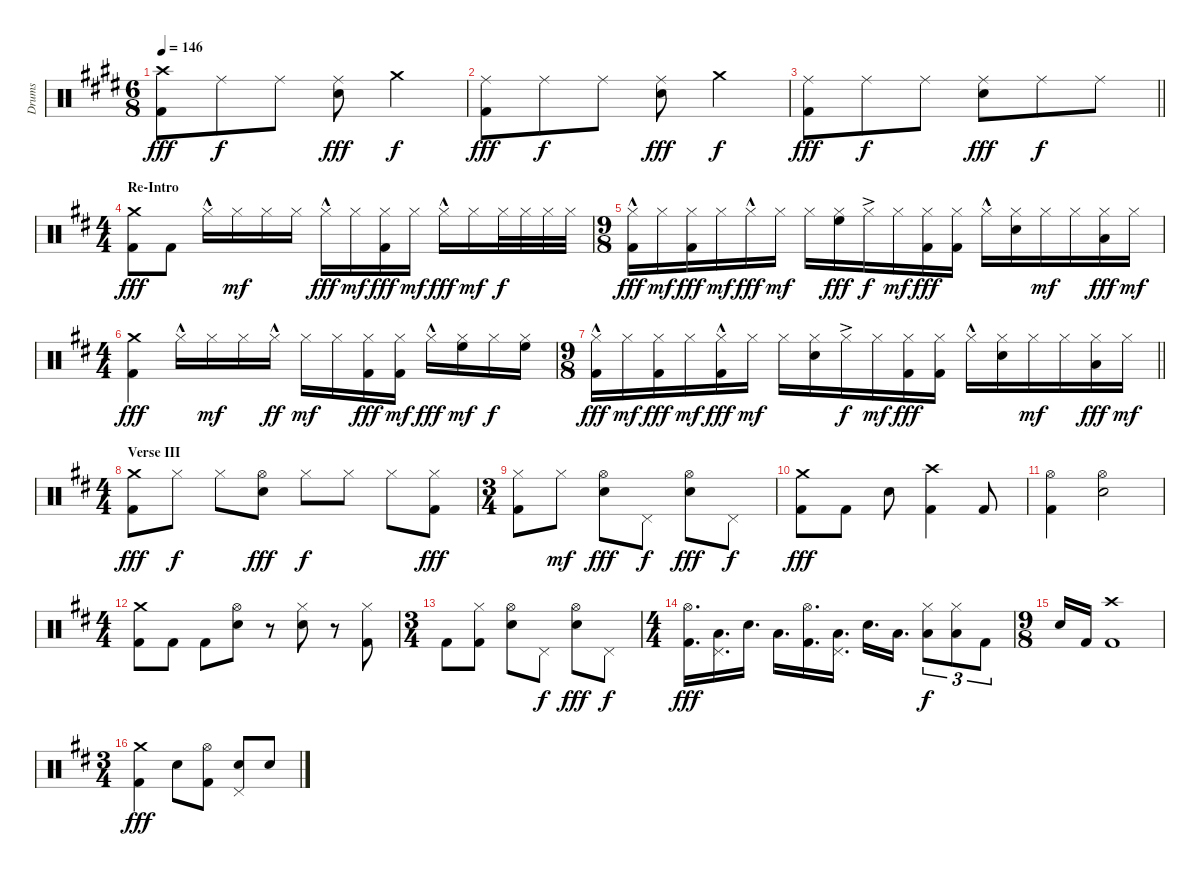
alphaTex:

\track ("Drums" "Drums") {instrument percussion}
\staff {score}
\articulation defaults
\ts (6 8)
\tempo 146
\clef neutral
\ks e
("Crash high (hit)" "Kick (hit) 2").8{dy fff} "Ride (middle)".8{dy f} "Ride (middle)".8 ("Ride (middle)" "Snare (hit) 2").8{dy fff} "Crash medium (hit)".4{dy f} |
("Ride (middle)" "Kick (hit) 2").8{dy fff} "Ride (middle)".8{dy f} "Ride (middle)".8 ("Ride (middle)" "Snare (hit) 2").8{dy fff} "Crash medium (hit)".4{dy f} |
\barLineRight lightlight
("Ride (middle)" "Kick (hit) 2").8{dy fff} "Ride (middle)".8{dy f} "Ride (middle)".8 ("Ride (middle)" "Snare (hit) 2").8{dy fff} "Ride (middle)".8{dy f} "Ride (middle)".8 |
\ts (4 4)
\section ("" "Re-Intro")
\ks d
("Crash medium (hit)" "Kick (hit) 2").8{dy fff} "Kick (hit) 2".8 "Hi-Hat (closed)"{hac}.16 "Hi-Hat (closed)".16{dy mf} "Hi-Hat (closed)".16 "Hi-Hat (closed)".16 "Hi-Hat (closed)"{hac}.16{dy fff} "Hi-Hat (closed)".16{dy mf} ("Hi-Hat (closed)" "Kick (hit) 2").16{dy fff} "Hi-Hat (closed)".16{dy mf} "Hi-Hat (closed)"{hac}.16{dy fff} "Hi-Hat (closed)".16{dy mf} "Hi-Hat (closed)".32{dy f} "Hi-Hat (closed)".32 "Hi-Hat (closed)".32 "Hi-Hat (closed)".32 |
\ts (9 8)
("Hi-Hat (closed)"{hac} "Kick (hit) 2").16{dy fff} "Hi-Hat (closed)".16{dy mf} ("Hi-Hat (closed)" "Kick (hit) 2").16{dy fff} "Hi-Hat (closed)".16{dy mf} "Hi-Hat (closed)"{hac}.16{dy fff} "Hi-Hat (closed)".16{dy mf} "Hi-Hat (closed)".16 ("Hi-Hat (closed)" "High Floor Tom (hit)").16{dy fff} "Hi-Hat (closed)"{ac}.16{dy f} "Hi-Hat (closed)".16{dy mf} ("Hi-Hat (closed)" "Kick (hit) 2").16{dy fff} ("Hi-Hat (closed)" "Kick (hit) 2").16 "Hi-Hat (closed)"{hac}.16 ("Hi-Hat (closed)" "Snare (hit) 2").16 "Hi-Hat (closed)".16{dy mf} "Hi-Hat (closed)".16 ("Hi-Hat (closed)" "Low Floor Tom (hit)").16{dy fff} "Hi-Hat (closed)".16{dy mf} |
\ts (4 4)
("Crash medium (hit)" "Kick (hit) 2").4{dy fff} "Hi-Hat (closed)"{hac}.16 "Hi-Hat (closed)".16{dy mf} "Hi-Hat (closed)".16 "Hi-Hat (closed)"{hac}.16{dy ff} "Hi-Hat (closed)".16{dy mf} "Hi-Hat (closed)".16 ("Hi-Hat (closed)" "Kick (hit) 2").16{dy fff} ("Hi-Hat (closed)" "Kick (hit) 2").16{dy mf} "Hi-Hat (closed)"{hac}.16{dy fff} ("Hi-Hat (closed)" "High Floor Tom (hit)").16{dy mf} "Hi-Hat (closed)".16{dy f} ("Hi-Hat (closed)" "High Floor Tom (hit)").16 |
\ts (9 8)
\barLineRight lightlight
("Hi-Hat (closed)"{hac} "Kick (hit) 2").16{dy fff} "Hi-Hat (closed)".16{dy mf} ("Hi-Hat (closed)" "Kick (hit) 2").16{dy fff} "Hi-Hat (closed)".16{dy mf} ("Hi-Hat (closed)"{hac} "Kick (hit) 2").16{dy fff} "Hi-Hat (closed)".16{dy mf} "Hi-Hat (closed)".16 ("Hi-Hat (closed)" "Snare (hit) 2").16 "Hi-Hat (closed)"{ac}.16{dy f} "Hi-Hat (closed)".16{dy mf} ("Hi-Hat (closed)" "Kick (hit) 2").16{dy fff} ("Hi-Hat (closed)" "Kick (hit) 2").16 "Hi-Hat (closed)"{hac}.16 ("Hi-Hat (closed)" "Snare (hit) 2").16 "Hi-Hat (closed)".16{dy mf} "Hi-Hat (closed)".16 ("Hi-Hat (closed)" "Low Floor Tom (hit)").16{dy fff} "Hi-Hat (closed)".16{dy mf} |
\ts (4 4)
\section ("" "Verse III")
("Crash medium (hit)" "Kick (hit) 2").8{dy fff} "Hi-Hat (closed)".8{dy f} "Hi-Hat (closed)".8 ("Hi-Hat (open)" "Snare (hit) 2").8{dy fff} "Hi-Hat (closed)".8{dy f} "Hi-Hat (closed)".8 "Hi-Hat (closed)".8 ("Hi-Hat (closed)" "Kick (hit) 2").8{dy fff} |
\ts (3 4)
("Hi-Hat (closed)" "Kick (hit) 2").8 "Hi-Hat (closed)".8{dy mf} ("Hi-Hat (open)" "Snare (hit) 2").8{dy fff} "Pedal Hi-Hat (hit)".8{dy f} ("Hi-Hat (open)" "Snare (hit) 2").8{dy fff} "Pedal Hi-Hat (hit)".8{dy f} |
("Crash medium (hit)" "Kick (hit) 2").8{dy fff} "Kick (hit) 2".8 "Snare (hit) 2".8 ("Crash high (hit)" "Kick (hit) 2").4 "Kick (hit) 2".8 |
("Hi-Hat (open)" "Kick (hit) 2").4 ("Hi-Hat (open)" "Snare (hit) 2").2 |
\ts (4 4)
("Crash medium (hit)" "Kick (hit) 2").8 "Kick (hit) 2".8 "Kick (hit) 2".8 ("Hi-Hat (open)" "Snare (hit) 2").8 r.8 ("Hi-Hat (closed)" "Snare (hit) 2").8 r.8 ("Hi-Hat (closed)" "Kick (hit) 2").8 |
\ts (3 4)
"Kick (hit) 2".8 ("Hi-Hat (closed)" "Kick (hit) 2").8 ("Hi-Hat (open)" "Snare (hit) 2").8 "Pedal Hi-Hat (hit)".8{dy f} ("Hi-Hat (open)" "Snare (hit) 2").8{dy fff} "Pedal Hi-Hat (hit)".8{dy f} |
\ts (4 4)
("Hi-Hat (open)" "Kick (hit) 2").16{d dy fff} ("Pedal Hi-Hat (hit)" "Low Tom (hit)").16{d} "Snare (hit) 2".16{d} "Low Tom (hit)".16{d} ("Hi-Hat (open)" "Kick (hit) 2").16{d} ("Pedal Hi-Hat (hit)" "Low Tom (hit)").16{d} "Snare (hit) 2".16{d} "Low Tom (hit)".16{d} ("Hi-Hat (closed)" "Low Tom (hit)").8{tu (3 2) dy f} ("Hi-Hat (closed)" "Low Tom (hit)").8{tu (3 2)} "Kick (hit) 2".8{tu (3 2)} |
\ts (9 8)
"Snare (hit) 2".16 "Kick (hit) 2".16 ("Crash high (hit)" "Kick (hit) 2").1 |
\ts (3 4)
("Crash medium (hit)" "Kick (hit) 2").4{dy fff} "Snare (hit) 2".8 ("Hi-Hat (open)" "Kick (hit) 2").8 ("Pedal Hi-Hat (hit)" "Snare (hit) 2").8 "Snare (hit) 2".8
